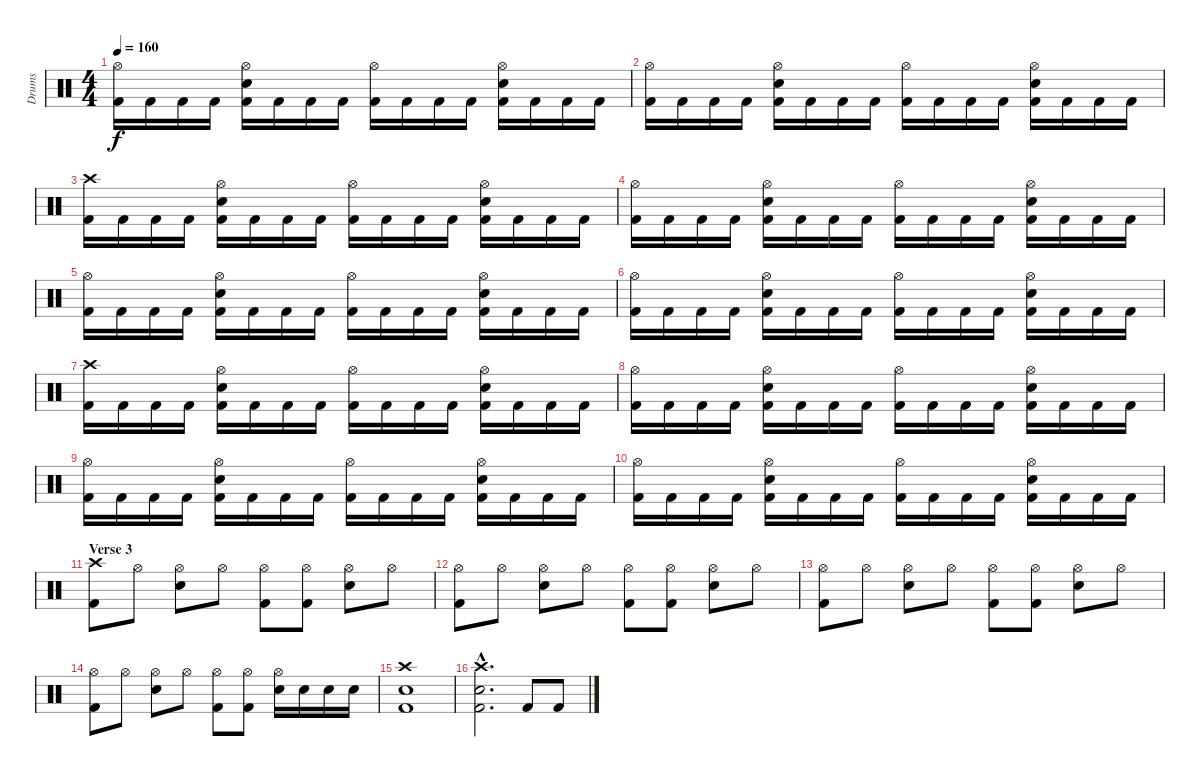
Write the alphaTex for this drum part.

\track ("Drums" "Drums") {instrument percussion}
\staff {score}
\articulation defaults
\ts (4 4)
\tempo 160
\clef neutral
\ks c
("Hi-Hat (open)" "Kick (hit) 2").16{dy f} "Kick (hit) 2".16 "Kick (hit) 2".16 "Kick (hit) 2".16 ("Hi-Hat (open)" "Electric Snare (hit)" "Kick (hit) 2").16 "Kick (hit) 2".16 "Kick (hit) 2".16 "Kick (hit) 2".16 ("Hi-Hat (open)" "Kick (hit) 2").16 "Kick (hit) 2".16 "Kick (hit) 2".16 "Kick (hit) 2".16 ("Hi-Hat (open)" "Electric Snare (hit)" "Kick (hit) 2").16 "Kick (hit) 2".16 "Kick (hit) 2".16 "Kick (hit) 2".16 |
("Hi-Hat (open)" "Kick (hit) 2").16 "Kick (hit) 2".16 "Kick (hit) 2".16 "Kick (hit) 2".16 ("Hi-Hat (open)" "Electric Snare (hit)" "Kick (hit) 2").16 "Kick (hit) 2".16 "Kick (hit) 2".16 "Kick (hit) 2".16 ("Hi-Hat (open)" "Kick (hit) 2").16 "Kick (hit) 2".16 "Kick (hit) 2".16 "Kick (hit) 2".16 ("Hi-Hat (open)" "Electric Snare (hit)" "Kick (hit) 2").16 "Kick (hit) 2".16 "Kick (hit) 2".16 "Kick (hit) 2".16 |
("Crash high (hit)" "Kick (hit) 2").16 "Kick (hit) 2".16 "Kick (hit) 2".16 "Kick (hit) 2".16 ("Hi-Hat (open)" "Electric Snare (hit)" "Kick (hit) 2").16 "Kick (hit) 2".16 "Kick (hit) 2".16 "Kick (hit) 2".16 ("Hi-Hat (open)" "Kick (hit) 2").16 "Kick (hit) 2".16 "Kick (hit) 2".16 "Kick (hit) 2".16 ("Hi-Hat (open)" "Electric Snare (hit)" "Kick (hit) 2").16 "Kick (hit) 2".16 "Kick (hit) 2".16 "Kick (hit) 2".16 |
("Hi-Hat (open)" "Kick (hit) 2").16 "Kick (hit) 2".16 "Kick (hit) 2".16 "Kick (hit) 2".16 ("Hi-Hat (open)" "Electric Snare (hit)" "Kick (hit) 2").16 "Kick (hit) 2".16 "Kick (hit) 2".16 "Kick (hit) 2".16 ("Hi-Hat (open)" "Kick (hit) 2").16 "Kick (hit) 2".16 "Kick (hit) 2".16 "Kick (hit) 2".16 ("Hi-Hat (open)" "Electric Snare (hit)" "Kick (hit) 2").16 "Kick (hit) 2".16 "Kick (hit) 2".16 "Kick (hit) 2".16 |
("Hi-Hat (open)" "Kick (hit) 2").16 "Kick (hit) 2".16 "Kick (hit) 2".16 "Kick (hit) 2".16 ("Hi-Hat (open)" "Electric Snare (hit)" "Kick (hit) 2").16 "Kick (hit) 2".16 "Kick (hit) 2".16 "Kick (hit) 2".16 ("Hi-Hat (open)" "Kick (hit) 2").16 "Kick (hit) 2".16 "Kick (hit) 2".16 "Kick (hit) 2".16 ("Hi-Hat (open)" "Electric Snare (hit)" "Kick (hit) 2").16 "Kick (hit) 2".16 "Kick (hit) 2".16 "Kick (hit) 2".16 |
("Hi-Hat (open)" "Kick (hit) 2").16 "Kick (hit) 2".16 "Kick (hit) 2".16 "Kick (hit) 2".16 ("Hi-Hat (open)" "Electric Snare (hit)" "Kick (hit) 2").16 "Kick (hit) 2".16 "Kick (hit) 2".16 "Kick (hit) 2".16 ("Hi-Hat (open)" "Kick (hit) 2").16 "Kick (hit) 2".16 "Kick (hit) 2".16 "Kick (hit) 2".16 ("Hi-Hat (open)" "Electric Snare (hit)" "Kick (hit) 2").16 "Kick (hit) 2".16 "Kick (hit) 2".16 "Kick (hit) 2".16 |
("Crash high (hit)" "Kick (hit) 2").16 "Kick (hit) 2".16 "Kick (hit) 2".16 "Kick (hit) 2".16 ("Hi-Hat (open)" "Electric Snare (hit)" "Kick (hit) 2").16 "Kick (hit) 2".16 "Kick (hit) 2".16 "Kick (hit) 2".16 ("Hi-Hat (open)" "Kick (hit) 2").16 "Kick (hit) 2".16 "Kick (hit) 2".16 "Kick (hit) 2".16 ("Hi-Hat (open)" "Electric Snare (hit)" "Kick (hit) 2").16 "Kick (hit) 2".16 "Kick (hit) 2".16 "Kick (hit) 2".16 |
("Hi-Hat (open)" "Kick (hit) 2").16 "Kick (hit) 2".16 "Kick (hit) 2".16 "Kick (hit) 2".16 ("Hi-Hat (open)" "Electric Snare (hit)" "Kick (hit) 2").16 "Kick (hit) 2".16 "Kick (hit) 2".16 "Kick (hit) 2".16 ("Hi-Hat (open)" "Kick (hit) 2").16 "Kick (hit) 2".16 "Kick (hit) 2".16 "Kick (hit) 2".16 ("Hi-Hat (open)" "Electric Snare (hit)" "Kick (hit) 2").16 "Kick (hit) 2".16 "Kick (hit) 2".16 "Kick (hit) 2".16 |
("Hi-Hat (open)" "Kick (hit) 2").16 "Kick (hit) 2".16 "Kick (hit) 2".16 "Kick (hit) 2".16 ("Hi-Hat (open)" "Electric Snare (hit)" "Kick (hit) 2").16 "Kick (hit) 2".16 "Kick (hit) 2".16 "Kick (hit) 2".16 ("Hi-Hat (open)" "Kick (hit) 2").16 "Kick (hit) 2".16 "Kick (hit) 2".16 "Kick (hit) 2".16 ("Hi-Hat (open)" "Electric Snare (hit)" "Kick (hit) 2").16 "Kick (hit) 2".16 "Kick (hit) 2".16 "Kick (hit) 2".16 |
("Hi-Hat (open)" "Kick (hit) 2").16 "Kick (hit) 2".16 "Kick (hit) 2".16 "Kick (hit) 2".16 ("Hi-Hat (open)" "Electric Snare (hit)" "Kick (hit) 2").16 "Kick (hit) 2".16 "Kick (hit) 2".16 "Kick (hit) 2".16 ("Hi-Hat (open)" "Kick (hit) 2").16 "Kick (hit) 2".16 "Kick (hit) 2".16 "Kick (hit) 2".16 ("Hi-Hat (open)" "Electric Snare (hit)" "Kick (hit) 2").16 "Kick (hit) 2".16 "Kick (hit) 2".16 "Kick (hit) 2".16 |
\section ("" "Verse 3")
("Crash high (hit)" "Kick (hit) 2").8 "Hi-Hat (open)".8 ("Hi-Hat (open)" "Electric Snare (hit)").8 "Hi-Hat (open)".8 ("Hi-Hat (open)" "Kick (hit) 2").8 ("Hi-Hat (open)" "Kick (hit) 2").8 ("Hi-Hat (open)" "Electric Snare (hit)").8 "Hi-Hat (open)".8 |
("Hi-Hat (open)" "Kick (hit) 2").8 "Hi-Hat (open)".8 ("Hi-Hat (open)" "Electric Snare (hit)").8 "Hi-Hat (open)".8 ("Hi-Hat (open)" "Kick (hit) 2").8 ("Hi-Hat (open)" "Kick (hit) 2").8 ("Hi-Hat (open)" "Electric Snare (hit)").8 "Hi-Hat (open)".8 |
("Hi-Hat (open)" "Kick (hit) 2").8 "Hi-Hat (open)".8 ("Hi-Hat (open)" "Electric Snare (hit)").8 "Hi-Hat (open)".8 ("Hi-Hat (open)" "Kick (hit) 2").8 ("Hi-Hat (open)" "Kick (hit) 2").8 ("Hi-Hat (open)" "Electric Snare (hit)").8 "Hi-Hat (open)".8 |
("Hi-Hat (open)" "Kick (hit) 2").8 "Hi-Hat (open)".8 ("Hi-Hat (open)" "Electric Snare (hit)").8 "Hi-Hat (open)".8 ("Hi-Hat (open)" "Kick (hit) 2").8 ("Hi-Hat (open)" "Kick (hit) 2").8 ("Hi-Hat (open)" "Electric Snare (hit)").16 "Electric Snare (hit)".16 "Electric Snare (hit)".16 "Electric Snare (hit)".16 |
("Crash high (hit)" "Kick (hit) 2" "Electric Snare (hit)").1 |
("Crash high (hit)"{hac} "Kick (hit) 2"{hac} "Electric Snare (hit)"{hac}).2{d} "Kick (hit) 2".8 "Kick (hit) 2".8
